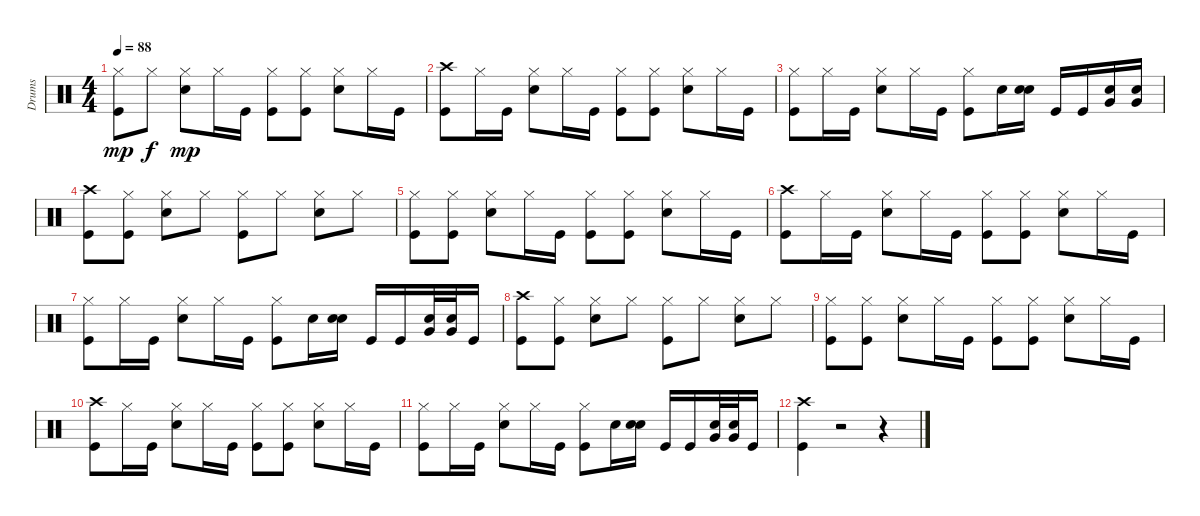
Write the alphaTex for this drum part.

\track ("Drums" "Drums") {instrument percussion}
\staff {score}
\articulation defaults
\ts (4 4)
\tempo 88
\clef neutral
\ks c
("Hi-Hat (closed)" "Kick (hit)").8{dy mp} "Hi-Hat (closed)".8{dy f} ("Hi-Hat (closed)" "Snare (hit) 2").8{dy mp} "Hi-Hat (closed)".16 "Kick (hit)".16 ("Hi-Hat (closed)" "Kick (hit)").8 ("Kick (hit)" "Hi-Hat (closed)").8 ("Hi-Hat (closed)" "Snare (hit) 2").8 "Hi-Hat (closed)".16 "Kick (hit)".16 |
("Crash high (hit)" "Kick (hit)").8 "Hi-Hat (closed)".16 "Kick (hit)".16 ("Hi-Hat (closed)" "Snare (hit) 2").8 "Hi-Hat (closed)".16 "Kick (hit)".16 ("Hi-Hat (closed)" "Kick (hit)").8 ("Hi-Hat (closed)" "Kick (hit)").8 ("Hi-Hat (closed)" "Snare (hit) 2").8 "Hi-Hat (closed)".16 "Kick (hit)".16 |
("Hi-Hat (closed)" "Kick (hit)").8 "Hi-Hat (closed)".16 "Kick (hit)".16 ("Hi-Hat (closed)" "Snare (hit) 2").8 "Hi-Hat (closed)".16 "Kick (hit)".16 ("Hi-Hat (closed)" "Kick (hit)").8 "Snare (hit) 2".16 ("Snare (hit) 2" "Snare (hit) 2").16 "Kick (hit)".16 "Kick (hit)".16 ("Snare (hit) 2" "Very Low Tom (hit)").16 ("Snare (hit) 2" "Very Low Tom (hit)").16 |
("Crash high (hit)" "Kick (hit)").8 ("Hi-Hat (closed)" "Kick (hit)").8 ("Hi-Hat (closed)" "Snare (hit) 2").8 "Hi-Hat (closed)".8 ("Hi-Hat (closed)" "Kick (hit)").8 "Hi-Hat (closed)".8 ("Hi-Hat (closed)" "Snare (hit) 2").8 "Hi-Hat (closed)".8 |
("Hi-Hat (closed)" "Kick (hit)").8 ("Hi-Hat (closed)" "Kick (hit)").8 ("Hi-Hat (closed)" "Snare (hit) 2").8 "Hi-Hat (closed)".16 "Kick (hit)".16 ("Hi-Hat (closed)" "Kick (hit)").8 ("Kick (hit)" "Hi-Hat (closed)").8 ("Hi-Hat (closed)" "Snare (hit) 2").8 "Hi-Hat (closed)".16 "Kick (hit)".16 |
("Crash high (hit)" "Kick (hit)").8 "Hi-Hat (closed)".16 "Kick (hit)".16 ("Hi-Hat (closed)" "Snare (hit) 2").8 "Hi-Hat (closed)".16 "Kick (hit)".16 ("Hi-Hat (closed)" "Kick (hit)").8 ("Hi-Hat (closed)" "Kick (hit)").8 ("Hi-Hat (closed)" "Snare (hit) 2").8 "Hi-Hat (closed)".16 "Kick (hit)".16 |
("Hi-Hat (closed)" "Kick (hit)").8 "Hi-Hat (closed)".16 "Kick (hit)".16 ("Hi-Hat (closed)" "Snare (hit) 2").8 "Hi-Hat (closed)".16 "Kick (hit)".16 ("Hi-Hat (closed)" "Kick (hit)").8 "Snare (hit) 2".16 ("Snare (hit) 2" "Snare (hit) 2").16 "Kick (hit)".16 "Kick (hit)".16 ("Snare (hit) 2" "Very Low Tom (hit)").32 ("Snare (hit) 2" "Very Low Tom (hit)").32 "Kick (hit)".16 |
("Kick (hit)" "Crash high (hit)").8 ("Hi-Hat (closed)" "Kick (hit)").8 ("Hi-Hat (closed)" "Snare (hit) 2").8 "Hi-Hat (closed)".8 ("Hi-Hat (closed)" "Kick (hit)").8 "Hi-Hat (closed)".8 ("Hi-Hat (closed)" "Snare (hit) 2").8 "Hi-Hat (closed)".8 |
("Hi-Hat (closed)" "Kick (hit)").8 ("Hi-Hat (closed)" "Kick (hit)").8 ("Hi-Hat (closed)" "Snare (hit) 2").8 "Hi-Hat (closed)".16 "Kick (hit)".16 ("Hi-Hat (closed)" "Kick (hit)").8 ("Kick (hit)" "Hi-Hat (closed)").8 ("Hi-Hat (closed)" "Snare (hit) 2").8 "Hi-Hat (closed)".16 "Kick (hit)".16 |
("Crash high (hit)" "Kick (hit)").8 "Hi-Hat (closed)".16 "Kick (hit)".16 ("Hi-Hat (closed)" "Snare (hit) 2").8 "Hi-Hat (closed)".16 "Kick (hit)".16 ("Hi-Hat (closed)" "Kick (hit)").8 ("Hi-Hat (closed)" "Kick (hit)").8 ("Hi-Hat (closed)" "Snare (hit) 2").8 "Hi-Hat (closed)".16 "Kick (hit)".16 |
("Hi-Hat (closed)" "Kick (hit)").8 "Hi-Hat (closed)".16 "Kick (hit)".16 ("Hi-Hat (closed)" "Snare (hit) 2").8 "Hi-Hat (closed)".16 "Kick (hit)".16 ("Hi-Hat (closed)" "Kick (hit)").8 "Snare (hit) 2".16 ("Snare (hit) 2" "Snare (hit) 2").16 "Kick (hit)".16 "Kick (hit)".16 ("Snare (hit) 2" "Very Low Tom (hit)").32 ("Snare (hit) 2" "Very Low Tom (hit)").32 "Kick (hit)".16 |
("Kick (hit)" "Crash high (hit)").4 r.2 r.4
